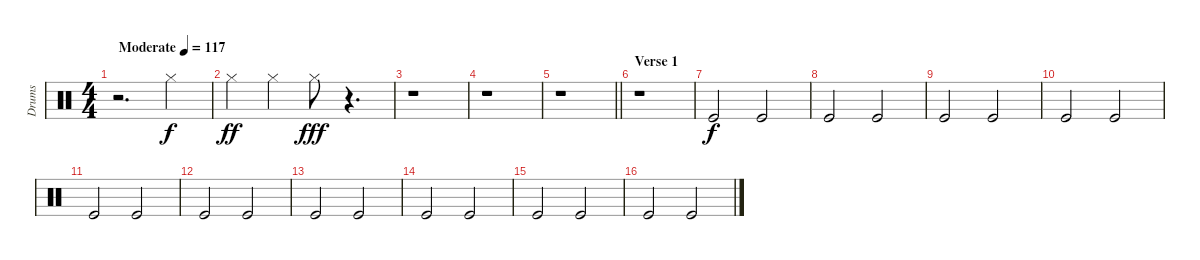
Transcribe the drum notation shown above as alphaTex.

\track ("Drums" "Drums") {instrument percussion}
\staff {score}
\articulation defaults
\ts (4 4)
\tempo (117 "Moderate")
\clef neutral
\ks c
r.2{d dy f} "Hi-Hat (closed)".4 |
"Hi-Hat (closed)".4{dy ff} "Hi-Hat (closed)".4 "Hi-Hat (closed)".8{dy fff} r.4{d} |
r.1 |
r.1 |
\barLineRight lightlight
r.1 |
\section ("" "Verse 1")
r.1 |
"Kick (hit)".2{dy f} "Kick (hit)".2 |
"Kick (hit)".2 "Kick (hit)".2 |
"Kick (hit)".2 "Kick (hit)".2 |
"Kick (hit)".2 "Kick (hit)".2 |
"Kick (hit)".2 "Kick (hit)".2 |
"Kick (hit)".2 "Kick (hit)".2 |
"Kick (hit)".2 "Kick (hit)".2 |
"Kick (hit)".2 "Kick (hit)".2 |
"Kick (hit)".2 "Kick (hit)".2 |
"Kick (hit)".2 "Kick (hit)".2
